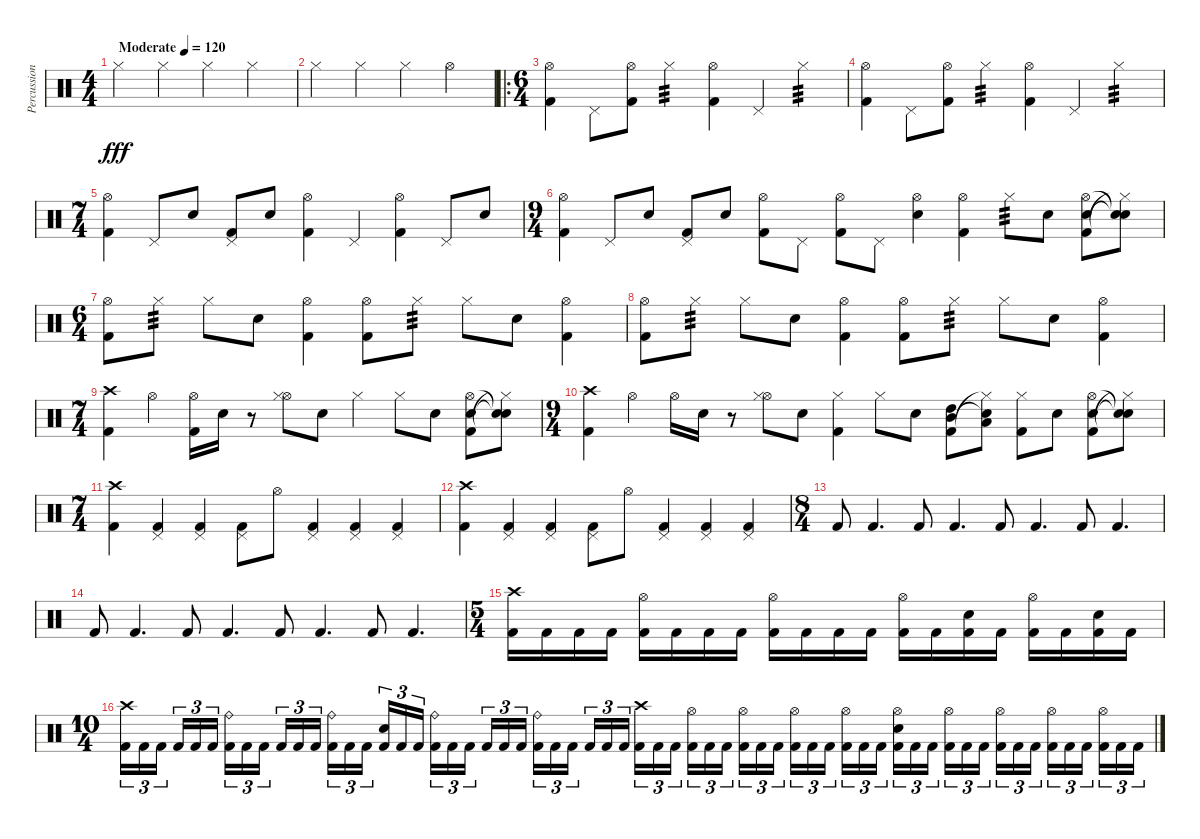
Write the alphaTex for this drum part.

\track ("Percussion" "Percussion") {instrument percussion}
\staff {score}
\articulation defaults
\ts (4 4)
\tempo (120 "Moderate")
\clef neutral
\ks c "Hi-Hat (closed)".4{dy fff volume 0} "Hi-Hat (closed)".4 "Hi-Hat (closed)".4 "Hi-Hat (closed)".4
|
"Hi-Hat (closed)".4 "Hi-Hat (closed)".4 "Hi-Hat (closed)".4 "Hi-Hat (open)".4 |
\ro
\ts (6 4)
("Hi-Hat (open)" "Kick (hit) 2").4{volume 12} "Pedal Hi-Hat (hit)".8 ("Hi-Hat (open)" "Kick (hit) 2").8 "Hi-Hat (closed)".4{tp 3} ("Hi-Hat (open)" "Kick (hit) 2").4 "Pedal Hi-Hat (hit)".4 "Hi-Hat (closed)".4{tp 3} |
("Hi-Hat (open)" "Kick (hit) 2").4 "Pedal Hi-Hat (hit)".8 ("Hi-Hat (open)" "Kick (hit) 2").8 "Hi-Hat (closed)".4{tp 3} ("Hi-Hat (open)" "Kick (hit) 2").4 "Pedal Hi-Hat (hit)".4 "Hi-Hat (closed)".4{tp 3} |
\ts (7 4)
("Hi-Hat (open)" "Kick (hit) 2").4 "Pedal Hi-Hat (hit)".8 "Electric Snare (hit)".8 ("Kick (hit) 2" "Pedal Hi-Hat (hit)").8 "Electric Snare (hit)".8 ("Hi-Hat (open)" "Kick (hit) 2").4 "Pedal Hi-Hat (hit)".4 ("Hi-Hat (open)" "Kick (hit) 2").4 "Pedal Hi-Hat (hit)".8 "Electric Snare (hit)".8 |
\ts (9 4)
("Hi-Hat (open)" "Kick (hit) 2").4 "Pedal Hi-Hat (hit)".8 "Electric Snare (hit)".8 ("Kick (hit) 2" "Pedal Hi-Hat (hit)").8 "Electric Snare (hit)".8 ("Hi-Hat (open)" "Kick (hit) 2").8 "Pedal Hi-Hat (hit)".8 ("Hi-Hat (open)" "Kick (hit) 2").8 "Pedal Hi-Hat (hit)".8 ("Electric Snare (hit)" "Hi-Hat (open)").4 ("Hi-Hat (open)" "Kick (hit) 2").4 "Hi-Hat (closed)".8{tp 3} "Electric Snare (hit)".8 ("Electric Snare (hit)" "Hi-Hat (open)" "Kick (hit) 2").8 ("Snare (hit)"{t} "Snare (hit)"{t} "Hi-Hat (closed)"{t}).8 |
\ts (6 4)
("Kick (hit) 2" "Hi-Hat (open)").8 "Hi-Hat (closed)".8{tp 3} "Hi-Hat (closed)".8 "Electric Snare (hit)".8 ("Kick (hit) 2" "Hi-Hat (open)").4 ("Kick (hit) 2" "Hi-Hat (open)").8 "Hi-Hat (closed)".8{tp 3} "Hi-Hat (closed)".8 "Electric Snare (hit)".8 ("Kick (hit) 2" "Hi-Hat (open)").4 |
("Kick (hit) 2" "Hi-Hat (open)").8 "Hi-Hat (closed)".8{tp 3} "Hi-Hat (closed)".8 "Electric Snare (hit)".8 ("Kick (hit) 2" "Hi-Hat (open)").4 ("Kick (hit) 2" "Hi-Hat (open)").8 "Hi-Hat (closed)".8{tp 3} "Hi-Hat (closed)".8 "Electric Snare (hit)".8 ("Kick (hit) 2" "Hi-Hat (open)").4 |
\ts (7 4)
("Kick (hit) 2" "Crash high (hit)").4 "Hi-Hat (open)".4 ("Kick (hit) 2" "Hi-Hat (open)").16 "Electric Snare (hit)".16 r.8 ("Hi-Hat (open)" "Hi-Hat (closed)").8 "Electric Snare (hit)".8 "Hi-Hat (closed)".4 "Hi-Hat (closed)".8 "Electric Snare (hit)".8 ("Electric Snare (hit)" "Hi-Hat (open)" "Kick (hit) 2").8 ("Snare (hit)"{t} "Snare (hit)"{t} "Hi-Hat (closed)"{t}).8 |
\ts (9 4)
("Kick (hit) 2" "Crash high (hit)").4 "Hi-Hat (open)".4 "Hi-Hat (open)".16 "Electric Snare (hit)".16 r.8 ("Hi-Hat (open)" "Hi-Hat (closed)").8 "Electric Snare (hit)".8 ("Kick (hit) 2" "Hi-Hat (closed)").4 "Hi-Hat (closed)".8 "Electric Snare (hit)".8 ("Mid Tom (hit)" "High Tom (hit)" "Kick (hit) 2").8 ("Snare (hit)"{t} "Low Tom (hit)" "Hi-Hat (closed)"{t}).8 ("Kick (hit) 2" "Hi-Hat (closed)").8 "Electric Snare (hit)".8 ("Electric Snare (hit)" "Hi-Hat (open)" "Kick (hit) 2").8 ("Snare (hit)"{t} "Snare (hit)"{t} "Hi-Hat (closed)"{t}).8 |
\ts (7 4)
("Crash high (hit)" "Kick (hit) 2").4 ("Pedal Hi-Hat (hit)" "Kick (hit) 2").4 ("Pedal Hi-Hat (hit)" "Kick (hit) 2").4 ("Pedal Hi-Hat (hit)" "Kick (hit) 2").8 "Hi-Hat (open)".8 ("Pedal Hi-Hat (hit)" "Kick (hit) 2").4 ("Pedal Hi-Hat (hit)" "Kick (hit) 2").4 ("Pedal Hi-Hat (hit)" "Kick (hit) 2").4 |
("Crash high (hit)" "Kick (hit) 2").4 ("Pedal Hi-Hat (hit)" "Kick (hit) 2").4 ("Pedal Hi-Hat (hit)" "Kick (hit) 2").4 ("Pedal Hi-Hat (hit)" "Kick (hit) 2").8 "Hi-Hat (open)".8 ("Pedal Hi-Hat (hit)" "Kick (hit) 2").4 ("Pedal Hi-Hat (hit)" "Kick (hit) 2").4 ("Pedal Hi-Hat (hit)" "Kick (hit) 2").4 |
\ts (8 4)
"Kick (hit) 2".8 "Kick (hit) 2".4{d} "Kick (hit) 2".8 "Kick (hit) 2".4{d} "Kick (hit) 2".8 "Kick (hit) 2".4{d} "Kick (hit) 2".8 "Kick (hit) 2".4{d} |
"Kick (hit) 2".8 "Kick (hit) 2".4{d} "Kick (hit) 2".8 "Kick (hit) 2".4{d} "Kick (hit) 2".8 "Kick (hit) 2".4{d} "Kick (hit) 2".8 "Kick (hit) 2".4{d} |
\ts (5 4)
("Crash high (hit)" "Kick (hit) 2").16 "Kick (hit) 2".16 "Kick (hit) 2".16 "Kick (hit) 2".16 ("Hi-Hat (open)" "Kick (hit) 2").16 "Kick (hit) 2".16 "Kick (hit) 2".16 "Kick (hit) 2".16 ("Hi-Hat (open)" "Kick (hit) 2").16 "Kick (hit) 2".16 "Kick (hit) 2".16 "Kick (hit) 2".16 ("Hi-Hat (open)" "Kick (hit) 2").16 "Kick (hit) 2".16 ("Electric Snare (hit)" "Kick (hit) 2").16 "Kick (hit) 2".16 ("Hi-Hat (open)" "Kick (hit) 2").16 "Kick (hit) 2".16 ("Electric Snare (hit)" "Kick (hit) 2").16 "Kick (hit) 2".16 |
\ts (10 4)
("Crash high (hit)" "Kick (hit) 2").16{tu (3 2)} "Kick (hit) 2".16{tu (3 2)} "Kick (hit) 2".16{tu (3 2) beam splitsecondary} "Kick (hit) 2".16{tu (3 2)} "Kick (hit) 2".16{tu (3 2)} "Kick (hit) 2".16{tu (3 2)} ("Ride (bell)" "Kick (hit) 2").16{tu (3 2)} "Kick (hit) 2".16{tu (3 2)} "Kick (hit) 2".16{tu (3 2) beam splitsecondary} "Kick (hit) 2".16{tu (3 2)} "Kick (hit) 2".16{tu (3 2)} "Kick (hit) 2".16{tu (3 2)} ("Ride (bell)" "Kick (hit) 2").16{tu (3 2)} "Kick (hit) 2".16{tu (3 2)} "Kick (hit) 2".16{tu (3 2) beam splitsecondary} ("Electric Snare (hit)" "Kick (hit) 2").16{tu (3 2)} "Kick (hit) 2".16{tu (3 2)} "Kick (hit) 2".16{tu (3 2)} ("Ride (bell)" "Kick (hit) 2").16{tu (3 2)} "Kick (hit) 2".16{tu (3 2)} "Kick (hit) 2".16{tu (3 2) beam splitsecondary} "Kick (hit) 2".16{tu (3 2)} "Kick (hit) 2".16{tu (3 2)} "Kick (hit) 2".16{tu (3 2)} ("Ride (bell)" "Kick (hit) 2").16{tu (3 2)} "Kick (hit) 2".16{tu (3 2)} "Kick (hit) 2".16{tu (3 2) beam splitsecondary} "Kick (hit) 2".16{tu (3 2)} "Kick (hit) 2".16{tu (3 2)} "Kick (hit) 2".16{tu (3 2)} ("Crash high (hit)" "Kick (hit) 2").16{tu (3 2)} "Kick (hit) 2".16{tu (3 2)} "Kick (hit) 2".16{tu (3 2) beam splitsecondary} ("Hi-Hat (open)" "Kick (hit) 2").16{tu (3 2)} "Kick (hit) 2".16{tu (3 2)} "Kick (hit) 2".16{tu (3 2)} ("Hi-Hat (open)" "Kick (hit) 2").16{tu (3 2)} "Kick (hit) 2".16{tu (3 2)} "Kick (hit) 2".16{tu (3 2) beam splitsecondary} ("Hi-Hat (open)" "Kick (hit) 2").16{tu (3 2)} "Kick (hit) 2".16{tu (3 2)} "Kick (hit) 2".16{tu (3 2)} ("Hi-Hat (open)" "Kick (hit) 2").16{tu (3 2)} "Kick (hit) 2".16{tu (3 2)} "Kick (hit) 2".16{tu (3 2) beam splitsecondary} ("Electric Snare (hit)" "Hi-Hat (open)" "Kick (hit) 2").16{tu (3 2)} "Kick (hit) 2".16{tu (3 2)} "Kick (hit) 2".16{tu (3 2)} ("Hi-Hat (open)" "Kick (hit) 2").16{tu (3 2)} "Kick (hit) 2".16{tu (3 2)} "Kick (hit) 2".16{tu (3 2) beam splitsecondary} ("Hi-Hat (open)" "Kick (hit) 2").16{tu (3 2)} "Kick (hit) 2".16{tu (3 2)} "Kick (hit) 2".16{tu (3 2)} ("Hi-Hat (open)" "Kick (hit) 2").16{tu (3 2)} "Kick (hit) 2".16{tu (3 2)} "Kick (hit) 2".16{tu (3 2) beam splitsecondary} ("Hi-Hat (open)" "Kick (hit) 2").16{tu (3 2)} "Kick (hit) 2".16{tu (3 2)} "Kick (hit) 2".16{tu (3 2)}
